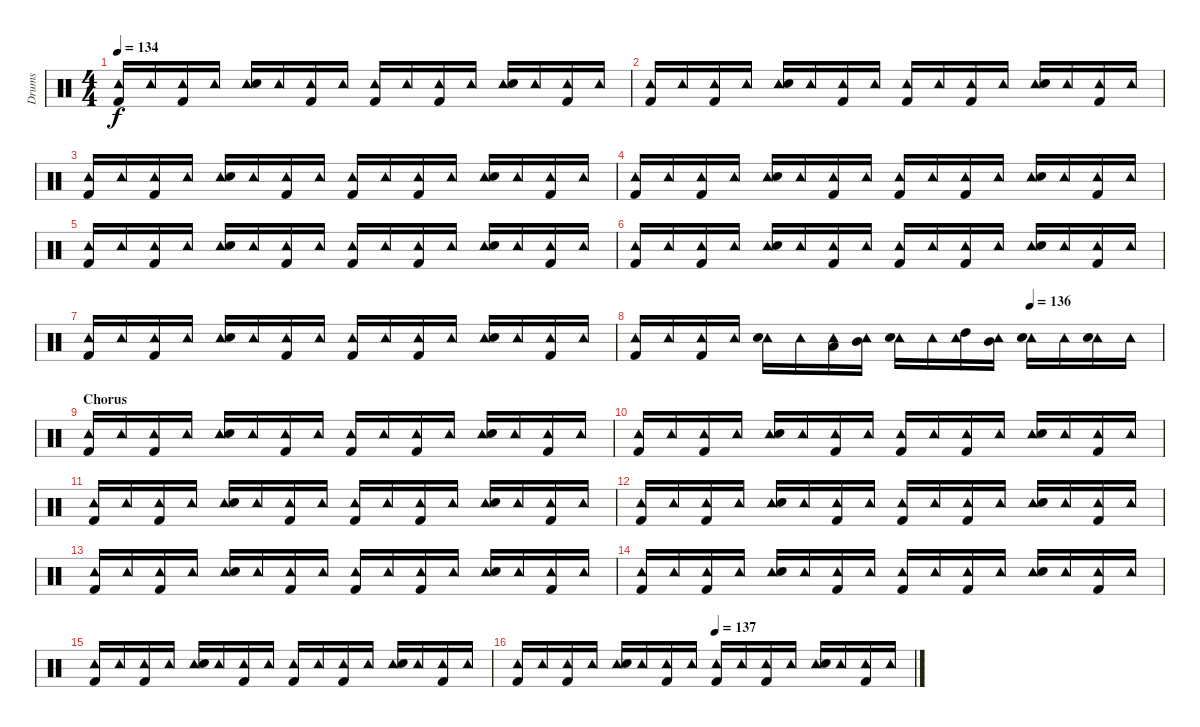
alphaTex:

\track ("Drums" "Drums") {instrument percussion}
\staff {score}
\articulation defaults
\ts (4 4)
\tempo 134
\clef neutral
\ks c
("Tambourine (hit)" "Kick (hit) 2").16{dy f} "Tambourine (hit)".16 ("Tambourine (hit)" "Kick (hit) 2").16 "Tambourine (hit)".16 ("Tambourine (hit)" "Electric Snare (hit)").16 "Tambourine (hit)".16 ("Tambourine (hit)" "Kick (hit) 2").16 "Tambourine (hit)".16 ("Tambourine (hit)" "Kick (hit) 2").16 "Tambourine (hit)".16 ("Tambourine (hit)" "Kick (hit) 2").16 "Tambourine (hit)".16 ("Tambourine (hit)" "Electric Snare (hit)").16 "Tambourine (hit)".16 ("Tambourine (hit)" "Kick (hit) 2").16 "Tambourine (hit)".16 |
("Tambourine (hit)" "Kick (hit) 2").16 "Tambourine (hit)".16 ("Tambourine (hit)" "Kick (hit) 2").16 "Tambourine (hit)".16 ("Tambourine (hit)" "Electric Snare (hit)").16 "Tambourine (hit)".16 ("Tambourine (hit)" "Kick (hit) 2").16 "Tambourine (hit)".16 ("Tambourine (hit)" "Kick (hit) 2").16 "Tambourine (hit)".16 ("Tambourine (hit)" "Kick (hit) 2").16 "Tambourine (hit)".16 ("Tambourine (hit)" "Electric Snare (hit)").16 "Tambourine (hit)".16 ("Tambourine (hit)" "Kick (hit) 2").16 "Tambourine (hit)".16 |
("Tambourine (hit)" "Kick (hit) 2").16 "Tambourine (hit)".16 ("Tambourine (hit)" "Kick (hit) 2").16 "Tambourine (hit)".16 ("Tambourine (hit)" "Electric Snare (hit)").16 "Tambourine (hit)".16 ("Tambourine (hit)" "Kick (hit) 2").16 "Tambourine (hit)".16 ("Tambourine (hit)" "Kick (hit) 2").16 "Tambourine (hit)".16 ("Tambourine (hit)" "Kick (hit) 2").16 "Tambourine (hit)".16 ("Tambourine (hit)" "Electric Snare (hit)").16 "Tambourine (hit)".16 ("Tambourine (hit)" "Kick (hit) 2").16 "Tambourine (hit)".16 |
("Tambourine (hit)" "Kick (hit) 2").16 "Tambourine (hit)".16 ("Tambourine (hit)" "Kick (hit) 2").16 "Tambourine (hit)".16 ("Tambourine (hit)" "Electric Snare (hit)").16 "Tambourine (hit)".16 ("Tambourine (hit)" "Kick (hit) 2").16 "Tambourine (hit)".16 ("Tambourine (hit)" "Kick (hit) 2").16 "Tambourine (hit)".16 ("Tambourine (hit)" "Kick (hit) 2").16 "Tambourine (hit)".16 ("Tambourine (hit)" "Electric Snare (hit)").16 "Tambourine (hit)".16 ("Tambourine (hit)" "Kick (hit) 2").16 "Tambourine (hit)".16 |
("Tambourine (hit)" "Kick (hit) 2").16 "Tambourine (hit)".16 ("Tambourine (hit)" "Kick (hit) 2").16 "Tambourine (hit)".16 ("Tambourine (hit)" "Electric Snare (hit)").16 "Tambourine (hit)".16 ("Tambourine (hit)" "Kick (hit) 2").16 "Tambourine (hit)".16 ("Tambourine (hit)" "Kick (hit) 2").16 "Tambourine (hit)".16 ("Tambourine (hit)" "Kick (hit) 2").16 "Tambourine (hit)".16 ("Tambourine (hit)" "Electric Snare (hit)").16 "Tambourine (hit)".16 ("Tambourine (hit)" "Kick (hit) 2").16 "Tambourine (hit)".16 |
("Tambourine (hit)" "Kick (hit) 2").16 "Tambourine (hit)".16 ("Tambourine (hit)" "Kick (hit) 2").16 "Tambourine (hit)".16 ("Tambourine (hit)" "Electric Snare (hit)").16 "Tambourine (hit)".16 ("Tambourine (hit)" "Kick (hit) 2").16 "Tambourine (hit)".16 ("Tambourine (hit)" "Kick (hit) 2").16 "Tambourine (hit)".16 ("Tambourine (hit)" "Kick (hit) 2").16 "Tambourine (hit)".16 ("Tambourine (hit)" "Electric Snare (hit)").16 "Tambourine (hit)".16 ("Tambourine (hit)" "Kick (hit) 2").16 "Tambourine (hit)".16 |
("Tambourine (hit)" "Kick (hit) 2").16 "Tambourine (hit)".16 ("Tambourine (hit)" "Kick (hit) 2").16 "Tambourine (hit)".16 ("Tambourine (hit)" "Electric Snare (hit)").16 "Tambourine (hit)".16 ("Tambourine (hit)" "Kick (hit) 2").16 "Tambourine (hit)".16 ("Tambourine (hit)" "Kick (hit) 2").16 "Tambourine (hit)".16 ("Tambourine (hit)" "Kick (hit) 2").16 "Tambourine (hit)".16 ("Tambourine (hit)" "Electric Snare (hit)").16 "Tambourine (hit)".16 ("Tambourine (hit)" "Kick (hit) 2").16 "Tambourine (hit)".16 |
\tempo (136 0.75)
("Tambourine (hit)" "Kick (hit) 2").16 "Tambourine (hit)".16 ("Tambourine (hit)" "Kick (hit) 2").16 "Tambourine (hit)".16 ("Tambourine (hit)" "Electric Snare (hit)").16 "Tambourine (hit)".16 ("Tambourine (hit)" "Low Tom (hit)").16 ("Tambourine (hit)" "Mid Tom (hit)").16 ("Tambourine (hit)" "Electric Snare (hit)").16 "Tambourine (hit)".16 ("Tambourine (hit)" "High Tom (hit)").16 ("Tambourine (hit)" "Mid Tom (hit)").16 ("Tambourine (hit)" "Electric Snare (hit)").16 "Tambourine (hit)".16 ("Tambourine (hit)" "Electric Snare (hit)").16 "Tambourine (hit)".16 |
\section ("" "Chorus")
("Tambourine (hit)" "Kick (hit) 2").16 "Tambourine (hit)".16 ("Tambourine (hit)" "Kick (hit) 2").16 "Tambourine (hit)".16 ("Tambourine (hit)" "Electric Snare (hit)").16 "Tambourine (hit)".16 ("Tambourine (hit)" "Kick (hit) 2").16 "Tambourine (hit)".16 ("Tambourine (hit)" "Kick (hit) 2").16 "Tambourine (hit)".16 ("Tambourine (hit)" "Kick (hit) 2").16 "Tambourine (hit)".16 ("Tambourine (hit)" "Electric Snare (hit)").16 "Tambourine (hit)".16 ("Tambourine (hit)" "Kick (hit) 2").16 "Tambourine (hit)".16 |
("Tambourine (hit)" "Kick (hit) 2").16 "Tambourine (hit)".16 ("Tambourine (hit)" "Kick (hit) 2").16 "Tambourine (hit)".16 ("Tambourine (hit)" "Electric Snare (hit)").16 "Tambourine (hit)".16 ("Tambourine (hit)" "Kick (hit) 2").16 "Tambourine (hit)".16 ("Tambourine (hit)" "Kick (hit) 2").16 "Tambourine (hit)".16 ("Tambourine (hit)" "Kick (hit) 2").16 "Tambourine (hit)".16 ("Tambourine (hit)" "Electric Snare (hit)").16 "Tambourine (hit)".16 ("Tambourine (hit)" "Kick (hit) 2").16 "Tambourine (hit)".16 |
("Tambourine (hit)" "Kick (hit) 2").16 "Tambourine (hit)".16 ("Tambourine (hit)" "Kick (hit) 2").16 "Tambourine (hit)".16 ("Tambourine (hit)" "Electric Snare (hit)").16 "Tambourine (hit)".16 ("Tambourine (hit)" "Kick (hit) 2").16 "Tambourine (hit)".16 ("Tambourine (hit)" "Kick (hit) 2").16 "Tambourine (hit)".16 ("Tambourine (hit)" "Kick (hit) 2").16 "Tambourine (hit)".16 ("Tambourine (hit)" "Electric Snare (hit)").16 "Tambourine (hit)".16 ("Tambourine (hit)" "Kick (hit) 2").16 "Tambourine (hit)".16 |
("Tambourine (hit)" "Kick (hit) 2").16 "Tambourine (hit)".16 ("Tambourine (hit)" "Kick (hit) 2").16 "Tambourine (hit)".16 ("Tambourine (hit)" "Electric Snare (hit)").16 "Tambourine (hit)".16 ("Tambourine (hit)" "Kick (hit) 2").16 "Tambourine (hit)".16 ("Tambourine (hit)" "Kick (hit) 2").16 "Tambourine (hit)".16 ("Tambourine (hit)" "Kick (hit) 2").16 "Tambourine (hit)".16 ("Tambourine (hit)" "Electric Snare (hit)").16 "Tambourine (hit)".16 ("Tambourine (hit)" "Kick (hit) 2").16 "Tambourine (hit)".16 |
("Tambourine (hit)" "Kick (hit) 2").16 "Tambourine (hit)".16 ("Tambourine (hit)" "Kick (hit) 2").16 "Tambourine (hit)".16 ("Tambourine (hit)" "Electric Snare (hit)").16 "Tambourine (hit)".16 ("Tambourine (hit)" "Kick (hit) 2").16 "Tambourine (hit)".16 ("Tambourine (hit)" "Kick (hit) 2").16 "Tambourine (hit)".16 ("Tambourine (hit)" "Kick (hit) 2").16 "Tambourine (hit)".16 ("Tambourine (hit)" "Electric Snare (hit)").16 "Tambourine (hit)".16 ("Tambourine (hit)" "Kick (hit) 2").16 "Tambourine (hit)".16 |
("Tambourine (hit)" "Kick (hit) 2").16 "Tambourine (hit)".16 ("Tambourine (hit)" "Kick (hit) 2").16 "Tambourine (hit)".16 ("Tambourine (hit)" "Electric Snare (hit)").16 "Tambourine (hit)".16 ("Tambourine (hit)" "Kick (hit) 2").16 "Tambourine (hit)".16 ("Tambourine (hit)" "Kick (hit) 2").16 "Tambourine (hit)".16 ("Tambourine (hit)" "Kick (hit) 2").16 "Tambourine (hit)".16 ("Tambourine (hit)" "Electric Snare (hit)").16 "Tambourine (hit)".16 ("Tambourine (hit)" "Kick (hit) 2").16 "Tambourine (hit)".16 |
("Tambourine (hit)" "Kick (hit) 2").16 "Tambourine (hit)".16 ("Tambourine (hit)" "Kick (hit) 2").16 "Tambourine (hit)".16 ("Tambourine (hit)" "Electric Snare (hit)").16 "Tambourine (hit)".16 ("Tambourine (hit)" "Kick (hit) 2").16 "Tambourine (hit)".16 ("Tambourine (hit)" "Kick (hit) 2").16 "Tambourine (hit)".16 ("Tambourine (hit)" "Kick (hit) 2").16 "Tambourine (hit)".16 ("Tambourine (hit)" "Electric Snare (hit)").16 "Tambourine (hit)".16 ("Tambourine (hit)" "Kick (hit) 2").16 "Tambourine (hit)".16 |
\tempo (137 0.5)
("Tambourine (hit)" "Kick (hit) 2").16 "Tambourine (hit)".16 ("Tambourine (hit)" "Kick (hit) 2").16 "Tambourine (hit)".16 ("Tambourine (hit)" "Electric Snare (hit)").16 "Tambourine (hit)".16 ("Tambourine (hit)" "Kick (hit) 2").16 "Tambourine (hit)".16 ("Tambourine (hit)" "Kick (hit) 2").16 "Tambourine (hit)".16 ("Tambourine (hit)" "Kick (hit) 2").16 "Tambourine (hit)".16 ("Tambourine (hit)" "Electric Snare (hit)").16 "Tambourine (hit)".16 ("Tambourine (hit)" "Kick (hit) 2").16 "Tambourine (hit)".16
